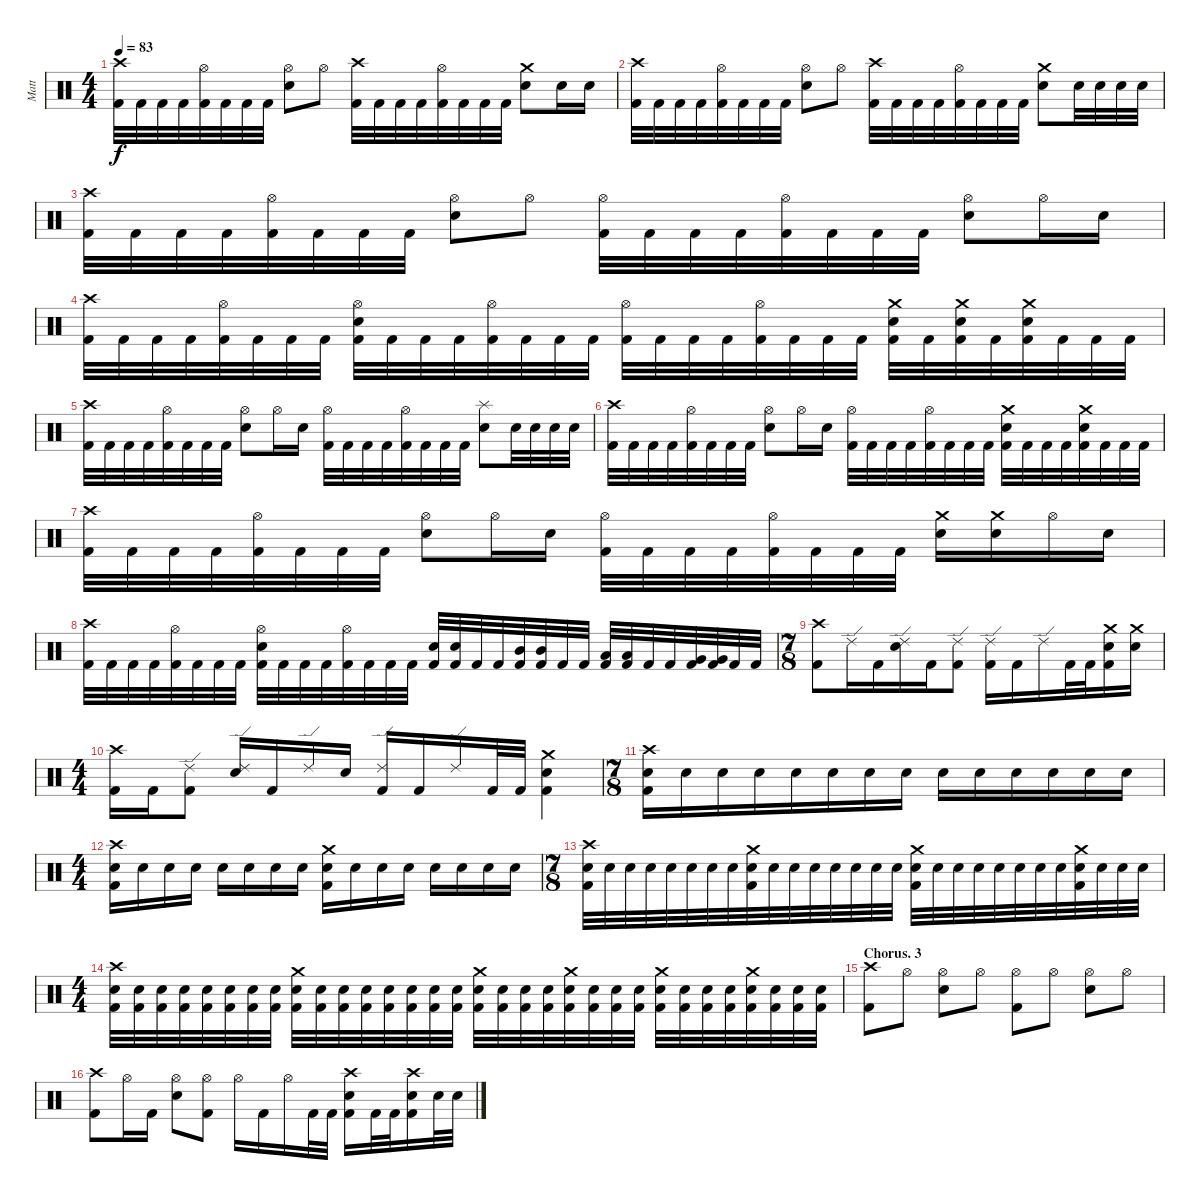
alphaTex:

\track ("Matt" "Matt") {instrument percussion}
\staff {score}
\articulation defaults
\ts (4 4)
\tempo 83
\clef neutral
\ks c
("Crash high (hit)" "Kick (hit) 2").32{dy f} "Kick (hit) 2".32 "Kick (hit) 2".32 "Kick (hit) 2".32 ("Hi-Hat (open)" "Kick (hit) 2").32 "Kick (hit) 2".32 "Kick (hit) 2".32 "Kick (hit) 2".32 ("Hi-Hat (open)" "Electric Snare (hit)").8 "Hi-Hat (open)".8 ("Crash high (hit)" "Kick (hit) 2").32 "Kick (hit) 2".32 "Kick (hit) 2".32 "Kick (hit) 2".32 ("Hi-Hat (open)" "Kick (hit) 2").32 "Kick (hit) 2".32 "Kick (hit) 2".32 "Kick (hit) 2".32 ("Crash medium (hit)" "Electric Snare (hit)").8 "Electric Snare (hit)".16 "Electric Snare (hit)".16 |
("Crash high (hit)" "Kick (hit) 2").32 "Kick (hit) 2".32 "Kick (hit) 2".32 "Kick (hit) 2".32 ("Hi-Hat (open)" "Kick (hit) 2").32 "Kick (hit) 2".32 "Kick (hit) 2".32 "Kick (hit) 2".32 ("Hi-Hat (open)" "Electric Snare (hit)").8 "Hi-Hat (open)".8 ("Crash high (hit)" "Kick (hit) 2").32 "Kick (hit) 2".32 "Kick (hit) 2".32 "Kick (hit) 2".32 ("Hi-Hat (open)" "Kick (hit) 2").32 "Kick (hit) 2".32 "Kick (hit) 2".32 "Kick (hit) 2".32 ("Crash medium (hit)" "Electric Snare (hit)").8 "Electric Snare (hit)".32 "Electric Snare (hit)".32 "Electric Snare (hit)".32 "Electric Snare (hit)".32 |
("Crash high (hit)" "Kick (hit) 2").32 "Kick (hit) 2".32 "Kick (hit) 2".32 "Kick (hit) 2".32 ("Hi-Hat (open)" "Kick (hit) 2").32 "Kick (hit) 2".32 "Kick (hit) 2".32 "Kick (hit) 2".32 ("Hi-Hat (open)" "Electric Snare (hit)").8 "Hi-Hat (open)".8 ("Hi-Hat (open)" "Kick (hit) 2").32 "Kick (hit) 2".32 "Kick (hit) 2".32 "Kick (hit) 2".32 ("Hi-Hat (open)" "Kick (hit) 2").32 "Kick (hit) 2".32 "Kick (hit) 2".32 "Kick (hit) 2".32 ("Hi-Hat (open)" "Electric Snare (hit)").8 "Hi-Hat (open)".16 "Electric Snare (hit)".16 |
("Crash high (hit)" "Kick (hit) 2").32 "Kick (hit) 2".32 "Kick (hit) 2".32 "Kick (hit) 2".32 ("Hi-Hat (open)" "Kick (hit) 2").32 "Kick (hit) 2".32 "Kick (hit) 2".32 "Kick (hit) 2".32 ("Hi-Hat (open)" "Electric Snare (hit)" "Kick (hit) 2").32 "Kick (hit) 2".32 "Kick (hit) 2".32 "Kick (hit) 2".32 ("Hi-Hat (open)" "Kick (hit) 2").32 "Kick (hit) 2".32 "Kick (hit) 2".32 "Kick (hit) 2".32 ("Hi-Hat (open)" "Kick (hit) 2").32 "Kick (hit) 2".32 "Kick (hit) 2".32 "Kick (hit) 2".32 ("Hi-Hat (open)" "Kick (hit) 2").32 "Kick (hit) 2".32 "Kick (hit) 2".32 "Kick (hit) 2".32 ("Crash medium (hit)" "Electric Snare (hit)" "Kick (hit) 2").32 "Kick (hit) 2".32 ("Crash medium (hit)" "Electric Snare (hit)" "Kick (hit) 2").32 "Kick (hit) 2".32 ("Crash medium (hit)" "Electric Snare (hit)" "Kick (hit) 2").32 "Kick (hit) 2".32 "Kick (hit) 2".32 "Kick (hit) 2".32 |
("Crash high (hit)" "Kick (hit) 2").32 "Kick (hit) 2".32 "Kick (hit) 2".32 "Kick (hit) 2".32 ("Hi-Hat (open)" "Kick (hit) 2").32 "Kick (hit) 2".32 "Kick (hit) 2".32 "Kick (hit) 2".32 ("Hi-Hat (open)" "Electric Snare (hit)").8 "Hi-Hat (open)".16 "Electric Snare (hit)".16 ("Hi-Hat (open)" "Kick (hit) 2").32 "Kick (hit) 2".32 "Kick (hit) 2".32 "Kick (hit) 2".32 ("Hi-Hat (open)" "Kick (hit) 2").32 "Kick (hit) 2".32 "Kick (hit) 2".32 "Kick (hit) 2".32 ("Splash (hit)" "Electric Snare (hit)").8 "Electric Snare (hit)".32 "Electric Snare (hit)".32 "Electric Snare (hit)".32 "Electric Snare (hit)".32 |
("Crash high (hit)" "Kick (hit) 2").32 "Kick (hit) 2".32 "Kick (hit) 2".32 "Kick (hit) 2".32 ("Hi-Hat (open)" "Kick (hit) 2").32 "Kick (hit) 2".32 "Kick (hit) 2".32 "Kick (hit) 2".32 ("Hi-Hat (open)" "Electric Snare (hit)").8 "Hi-Hat (open)".16 "Electric Snare (hit)".16 ("Hi-Hat (open)" "Kick (hit) 2").32 "Kick (hit) 2".32 "Kick (hit) 2".32 "Kick (hit) 2".32 ("Hi-Hat (open)" "Kick (hit) 2").32 "Kick (hit) 2".32 "Kick (hit) 2".32 "Kick (hit) 2".32 ("Crash medium (hit)" "Electric Snare (hit)" "Kick (hit) 2").32 "Kick (hit) 2".32 "Kick (hit) 2".32 "Kick (hit) 2".32 ("Crash medium (hit)" "Electric Snare (hit)" "Kick (hit) 2").32 "Kick (hit) 2".32 "Kick (hit) 2".32 "Kick (hit) 2".32 |
("Crash high (hit)" "Kick (hit) 2").32 "Kick (hit) 2".32 "Kick (hit) 2".32 "Kick (hit) 2".32 ("Hi-Hat (open)" "Kick (hit) 2").32 "Kick (hit) 2".32 "Kick (hit) 2".32 "Kick (hit) 2".32 ("Hi-Hat (open)" "Electric Snare (hit)").8 "Hi-Hat (open)".16 "Electric Snare (hit)".16 ("Hi-Hat (open)" "Kick (hit) 2").32 "Kick (hit) 2".32 "Kick (hit) 2".32 "Kick (hit) 2".32 ("Hi-Hat (open)" "Kick (hit) 2").32 "Kick (hit) 2".32 "Kick (hit) 2".32 "Kick (hit) 2".32 ("Crash medium (hit)" "Electric Snare (hit)").16 ("Crash medium (hit)" "Electric Snare (hit)").16 "Hi-Hat (open)".16 "Electric Snare (hit)".16 |
("Crash high (hit)" "Kick (hit) 2").32 "Kick (hit) 2".32 "Kick (hit) 2".32 "Kick (hit) 2".32 ("Hi-Hat (open)" "Kick (hit) 2").32 "Kick (hit) 2".32 "Kick (hit) 2".32 "Kick (hit) 2".32 ("Hi-Hat (open)" "Electric Snare (hit)" "Kick (hit) 2").32 "Kick (hit) 2".32 "Kick (hit) 2".32 "Kick (hit) 2".32 ("Hi-Hat (open)" "Kick (hit) 2").32 "Kick (hit) 2".32 "Kick (hit) 2".32 "Kick (hit) 2".32 ("Electric Snare (hit)" "Kick (hit) 2").32 ("Electric Snare (hit)" "Kick (hit) 2").32 "Kick (hit) 2".32 "Kick (hit) 2".32 ("Mid Tom (hit)" "Kick (hit) 2").32 ("Mid Tom (hit)" "Kick (hit) 2").32 "Kick (hit) 2".32 "Kick (hit) 2".32 ("Low Tom (hit)" "Kick (hit) 2").32 ("Low Tom (hit)" "Kick (hit) 2").32 "Kick (hit) 2".32 "Kick (hit) 2".32 ("Very Low Tom (hit)" "Kick (hit) 2").32 ("Very Low Tom (hit)" "Kick (hit) 2").32 "Kick (hit) 2".32 "Kick (hit) 2".32 |
\ts (7 8)
("Crash high (hit)" "Kick (hit) 2").8 "Ride (edge) 2".16 "Kick (hit) 2".16 ("Ride (edge) 2" "Electric Snare (hit)").16 "Kick (hit) 2".16 ("Ride (edge) 2" "Kick (hit) 2").8 ("Ride (edge) 2" "Kick (hit) 2").16 "Kick (hit) 2".16 "Ride (edge) 2".16 "Kick (hit) 2".32 "Kick (hit) 2".32 ("Crash medium (hit)" "Electric Snare (hit)" "Kick (hit) 2").16 ("Crash medium (hit)" "Electric Snare (hit)").16 |
\ts (4 4)
("Crash high (hit)" "Kick (hit) 2").16 "Kick (hit) 2".16 ("Ride (edge) 2" "Kick (hit) 2").8 ("Ride (edge) 2" "Electric Snare (hit)").16 "Kick (hit) 2".16 "Ride (edge) 2".16 "Electric Snare (hit)".16 ("Ride (edge) 2" "Kick (hit) 2").16 "Kick (hit) 2".16 "Ride (edge) 2".16 "Kick (hit) 2".32 "Kick (hit) 2".32 ("Crash medium (hit)" "Electric Snare (hit)" "Kick (hit) 2").4 |
\ts (7 8)
("Crash high (hit)" "Electric Snare (hit)" "Kick (hit) 2").16 "Electric Snare (hit)".16 "Electric Snare (hit)".16 "Electric Snare (hit)".16 "Electric Snare (hit)".16 "Electric Snare (hit)".16 "Electric Snare (hit)".16 "Electric Snare (hit)".16 "Electric Snare (hit)".16 "Electric Snare (hit)".16 "Electric Snare (hit)".16 "Electric Snare (hit)".16 "Electric Snare (hit)".16 "Electric Snare (hit)".16 |
\ts (4 4)
("Crash high (hit)" "Electric Snare (hit)" "Kick (hit) 2").16 "Electric Snare (hit)".16 "Electric Snare (hit)".16 "Electric Snare (hit)".16 "Electric Snare (hit)".16 "Electric Snare (hit)".16 "Electric Snare (hit)".16 "Electric Snare (hit)".16 ("Crash medium (hit)" "Electric Snare (hit)" "Kick (hit) 2").16 "Electric Snare (hit)".16 "Electric Snare (hit)".16 "Electric Snare (hit)".16 "Electric Snare (hit)".16 "Electric Snare (hit)".16 "Electric Snare (hit)".16 "Electric Snare (hit)".16 |
\ts (7 8)
("Crash high (hit)" "Electric Snare (hit)" "Kick (hit) 2").32 "Electric Snare (hit)".32 "Electric Snare (hit)".32 "Electric Snare (hit)".32 "Electric Snare (hit)".32 "Electric Snare (hit)".32 "Electric Snare (hit)".32 "Electric Snare (hit)".32 ("Crash medium (hit)" "Electric Snare (hit)" "Kick (hit) 2").32 "Electric Snare (hit)".32 "Electric Snare (hit)".32 "Electric Snare (hit)".32 "Electric Snare (hit)".32 "Electric Snare (hit)".32 "Electric Snare (hit)".32 "Electric Snare (hit)".32 ("Crash medium (hit)" "Electric Snare (hit)" "Kick (hit) 2").32 "Electric Snare (hit)".32 "Electric Snare (hit)".32 "Electric Snare (hit)".32 "Electric Snare (hit)".32 "Electric Snare (hit)".32 "Electric Snare (hit)".32 "Electric Snare (hit)".32 ("Crash medium (hit)" "Electric Snare (hit)" "Kick (hit) 2").32 "Electric Snare (hit)".32 "Electric Snare (hit)".32 "Electric Snare (hit)".32 |
\ts (4 4)
("Crash high (hit)" "Electric Snare (hit)" "Kick (hit) 2").32 ("Electric Snare (hit)" "Kick (hit) 2").32 ("Electric Snare (hit)" "Kick (hit) 2").32 ("Electric Snare (hit)" "Kick (hit) 2").32 ("Electric Snare (hit)" "Kick (hit) 2").32 ("Electric Snare (hit)" "Kick (hit) 2").32 ("Electric Snare (hit)" "Kick (hit) 2").32 ("Electric Snare (hit)" "Kick (hit) 2").32 ("Crash medium (hit)" "Electric Snare (hit)" "Kick (hit) 2").32 ("Electric Snare (hit)" "Kick (hit) 2").32 ("Electric Snare (hit)" "Kick (hit) 2").32 ("Electric Snare (hit)" "Kick (hit) 2").32 ("Electric Snare (hit)" "Kick (hit) 2").32 ("Electric Snare (hit)" "Kick (hit) 2").32 ("Electric Snare (hit)" "Kick (hit) 2").32 ("Electric Snare (hit)" "Kick (hit) 2").32 ("Crash medium (hit)" "Electric Snare (hit)" "Kick (hit) 2").32 ("Electric Snare (hit)" "Kick (hit) 2").32 ("Electric Snare (hit)" "Kick (hit) 2").32 ("Electric Snare (hit)" "Kick (hit) 2").32 ("Crash medium (hit)" "Electric Snare (hit)" "Kick (hit) 2").32 ("Electric Snare (hit)" "Kick (hit) 2").32 ("Electric Snare (hit)" "Kick (hit) 2").32 ("Electric Snare (hit)" "Kick (hit) 2").32 ("Crash medium (hit)" "Electric Snare (hit)" "Kick (hit) 2").32 ("Electric Snare (hit)" "Kick (hit) 2").32 ("Electric Snare (hit)" "Kick (hit) 2").32 ("Electric Snare (hit)" "Kick (hit) 2").32 ("Crash medium (hit)" "Electric Snare (hit)" "Kick (hit) 2").32 ("Electric Snare (hit)" "Kick (hit) 2").32 ("Electric Snare (hit)" "Kick (hit) 2").32 ("Electric Snare (hit)" "Kick (hit) 2").32 |
\section ("" "Chorus. 3")
("Crash high (hit)" "Kick (hit) 2").8 "Hi-Hat (open)".8 ("Hi-Hat (open)" "Electric Snare (hit)").8 "Hi-Hat (open)".8 ("Hi-Hat (open)" "Kick (hit) 2").8 "Hi-Hat (open)".8 ("Hi-Hat (open)" "Electric Snare (hit)").8 "Hi-Hat (open)".8 |
("Crash high (hit)" "Kick (hit) 2").8 "Hi-Hat (open)".16 "Kick (hit) 2".16 ("Hi-Hat (open)" "Electric Snare (hit)").8 ("Hi-Hat (open)" "Kick (hit) 2").8 "Hi-Hat (open)".16 "Kick (hit) 2".16 "Hi-Hat (open)".16 "Kick (hit) 2".32 "Kick (hit) 2".32 ("Crash high (hit)" "Electric Snare (hit)" "Kick (hit) 2").16 "Kick (hit) 2".32 "Kick (hit) 2".32 ("Crash high (hit)" "Electric Snare (hit)" "Kick (hit) 2").16 "Electric Snare (hit)".32 "Electric Snare (hit)".32
